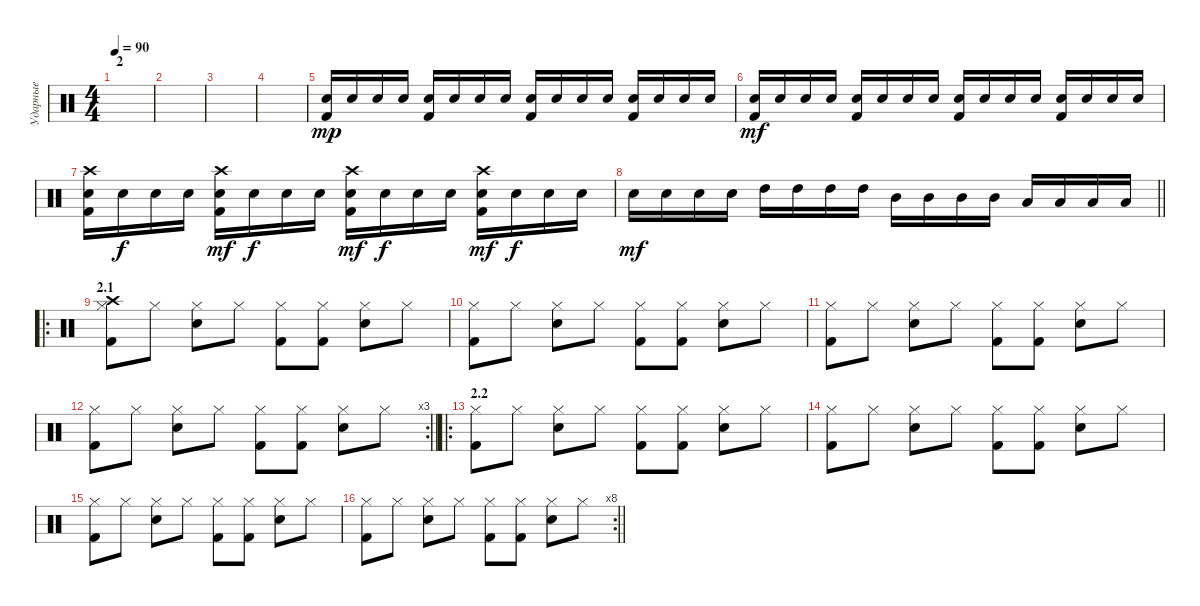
\track ("Ударные" "Ударные") {instrument percussion}
\staff {score}
\articulation defaults
\ts (4 4)
\section ("" "2")
\tempo 90
\clef neutral
\ks c
|
|
|
|
("Kick (hit) 2" "Electric Snare (hit)").16{dy mp} "Electric Snare (hit)".16 "Electric Snare (hit)".16 "Electric Snare (hit)".16 ("Kick (hit) 2" "Electric Snare (hit)").16 "Electric Snare (hit)".16 "Electric Snare (hit)".16 "Electric Snare (hit)".16 ("Kick (hit) 2" "Electric Snare (hit)").16 "Electric Snare (hit)".16 "Electric Snare (hit)".16 "Electric Snare (hit)".16 ("Kick (hit) 2" "Electric Snare (hit)").16 "Electric Snare (hit)".16 "Electric Snare (hit)".16 "Electric Snare (hit)".16 |
("Kick (hit) 2" "Electric Snare (hit)").16{dy mf} "Electric Snare (hit)".16 "Electric Snare (hit)".16 "Electric Snare (hit)".16 ("Kick (hit) 2" "Electric Snare (hit)").16 "Electric Snare (hit)".16 "Electric Snare (hit)".16 "Electric Snare (hit)".16 ("Kick (hit) 2" "Electric Snare (hit)").16 "Electric Snare (hit)".16 "Electric Snare (hit)".16 "Electric Snare (hit)".16 ("Kick (hit) 2" "Electric Snare (hit)").16 "Electric Snare (hit)".16 "Electric Snare (hit)".16 "Electric Snare (hit)".16 |
("Crash high (hit)" "Kick (hit) 2" "Electric Snare (hit)").16 "Electric Snare (hit)".16{dy f} "Electric Snare (hit)".16 "Electric Snare (hit)".16 ("Crash high (hit)" "Kick (hit) 2" "Electric Snare (hit)").16{dy mf} "Electric Snare (hit)".16{dy f} "Electric Snare (hit)".16 "Electric Snare (hit)".16 ("Crash high (hit)" "Kick (hit) 2" "Electric Snare (hit)").16{dy mf} "Electric Snare (hit)".16{dy f} "Electric Snare (hit)".16 "Electric Snare (hit)".16 ("Crash high (hit)" "Kick (hit) 2" "Electric Snare (hit)").16{dy mf} "Electric Snare (hit)".16{dy f} "Electric Snare (hit)".16 "Electric Snare (hit)".16 |
\barLineRight lightlight "Snare (hit) 2".16{dy mf} "Snare (hit) 2".16 "Snare (hit) 2".16 "Snare (hit) 2".16 "High Tom (hit)".16 "High Tom (hit)".16 "High Tom (hit)".16 "High Tom (hit)".16 "Mid Tom (hit)".16 "Mid Tom (hit)".16 "Mid Tom (hit)".16 "Mid Tom (hit)".16 "Low Tom (hit)".16 "Low Tom (hit)".16 "Low Tom (hit)".16 "Low Tom (hit)".16
|
\ro
\section ("" "2.1")
("Crash high (hit)" "Hi-Hat (closed)" "Kick (hit) 2").8 "Hi-Hat (closed)".8 ("Hi-Hat (closed)" "Electric Snare (hit)").8 "Hi-Hat (closed)".8 ("Hi-Hat (closed)" "Kick (hit) 2").8 ("Hi-Hat (closed)" "Kick (hit) 2").8 ("Hi-Hat (closed)" "Electric Snare (hit)").8 "Hi-Hat (closed)".8 |
("Hi-Hat (closed)" "Kick (hit) 2").8 "Hi-Hat (closed)".8 ("Hi-Hat (closed)" "Electric Snare (hit)").8 "Hi-Hat (closed)".8 ("Hi-Hat (closed)" "Kick (hit) 2").8 ("Hi-Hat (closed)" "Kick (hit) 2").8 ("Hi-Hat (closed)" "Electric Snare (hit)").8 "Hi-Hat (closed)".8 |
("Hi-Hat (closed)" "Kick (hit) 2").8 "Hi-Hat (closed)".8 ("Hi-Hat (closed)" "Electric Snare (hit)").8 "Hi-Hat (closed)".8 ("Hi-Hat (closed)" "Kick (hit) 2").8 ("Hi-Hat (closed)" "Kick (hit) 2").8 ("Hi-Hat (closed)" "Electric Snare (hit)").8 "Hi-Hat (closed)".8 |
\rc 3
\barLineRight lightlight
("Hi-Hat (closed)" "Kick (hit) 2").8 "Hi-Hat (closed)".8 ("Hi-Hat (closed)" "Electric Snare (hit)").8 "Hi-Hat (closed)".8 ("Hi-Hat (closed)" "Kick (hit) 2").8 ("Hi-Hat (closed)" "Kick (hit) 2").8 ("Hi-Hat (closed)" "Electric Snare (hit)").8 "Hi-Hat (closed)".8 |
\ro
\section ("" "2.2")
("Hi-Hat (closed)" "Kick (hit) 2").8 "Hi-Hat (closed)".8 ("Hi-Hat (closed)" "Electric Snare (hit)").8 "Hi-Hat (closed)".8 ("Hi-Hat (closed)" "Kick (hit) 2").8 ("Hi-Hat (closed)" "Kick (hit) 2").8 ("Hi-Hat (closed)" "Electric Snare (hit)").8 "Hi-Hat (closed)".8 |
("Hi-Hat (closed)" "Kick (hit) 2").8 "Hi-Hat (closed)".8 ("Hi-Hat (closed)" "Electric Snare (hit)").8 "Hi-Hat (closed)".8 ("Hi-Hat (closed)" "Kick (hit) 2").8 ("Hi-Hat (closed)" "Kick (hit) 2").8 ("Hi-Hat (closed)" "Electric Snare (hit)").8 "Hi-Hat (closed)".8 |
("Hi-Hat (closed)" "Kick (hit) 2").8 "Hi-Hat (closed)".8 ("Hi-Hat (closed)" "Electric Snare (hit)").8 "Hi-Hat (closed)".8 ("Hi-Hat (closed)" "Kick (hit) 2").8 ("Hi-Hat (closed)" "Kick (hit) 2").8 ("Hi-Hat (closed)" "Electric Snare (hit)").8 "Hi-Hat (closed)".8 |
\rc 8
\barLineRight lightlight
("Hi-Hat (closed)" "Kick (hit) 2").8 "Hi-Hat (closed)".8 ("Hi-Hat (closed)" "Electric Snare (hit)").8 "Hi-Hat (closed)".8 ("Hi-Hat (closed)" "Kick (hit) 2").8 ("Hi-Hat (closed)" "Kick (hit) 2").8 ("Hi-Hat (closed)" "Electric Snare (hit)").8 "Hi-Hat (closed)".8
